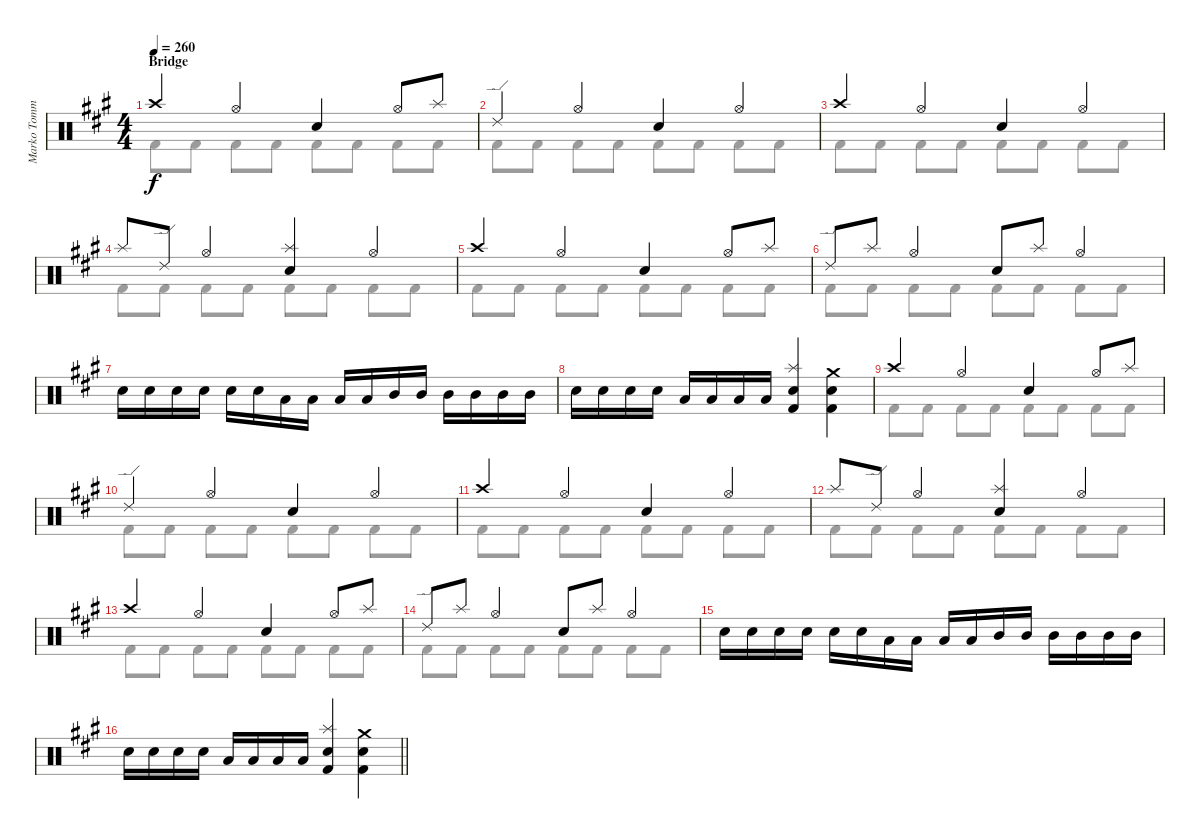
\track ("Marko Tommila (drums)" "Marko Tomm") {instrument percussion}
\staff {score}
\articulation defaults
\voice
\ts (4 4)
\section ("" "Bridge")
\tempo 260
\clef neutral
\ks f#minor "Crash high (hit)".4{dy f} "Hi-Hat (open)".4 "Electric Snare (hit)".4 "Hi-Hat (open)".8 "Splash (hit)".8
|
"Ride (edge) 2".4 "Hi-Hat (open)".4 "Electric Snare (hit)".4 "Hi-Hat (open)".4 |
"Crash high (hit)".4 "Hi-Hat (open)".4 "Electric Snare (hit)".4 "Hi-Hat (open)".4 |
"Splash (hit)".8 "Ride (edge) 2".8 "Hi-Hat (open)".4 ("Splash (hit)" "Electric Snare (hit)").4 "Hi-Hat (open)".4 |
"Crash high (hit)".4 "Hi-Hat (open)".4 "Electric Snare (hit)".4 "Hi-Hat (open)".8 "Splash (hit)".8 |
"Ride (edge) 2".8 "Splash (hit)".8 "Hi-Hat (open)".4 "Electric Snare (hit)".8 "Splash (hit)".8 "Hi-Hat (open)".4 |
"Electric Snare (hit)".16 "Electric Snare (hit)".16 "Electric Snare (hit)".16 "Electric Snare (hit)".16 "Electric Snare (hit)".16 "Electric Snare (hit)".16 "Low Tom (hit)".16 "Low Tom (hit)".16 "Low Tom (hit)".16 "Low Tom (hit)".16 "Mid Tom (hit)".16 "Mid Tom (hit)".16 "Mid Tom (hit)".16 "Mid Tom (hit)".16 "Mid Tom (hit)".16 "Mid Tom (hit)".16 |
"Electric Snare (hit)".16 "Electric Snare (hit)".16 "Electric Snare (hit)".16 "Electric Snare (hit)".16 "Low Tom (hit)".16 "Low Tom (hit)".16 "Low Tom (hit)".16 "Low Tom (hit)".16 ("Splash (hit)" "Electric Snare (hit)" "Kick (hit) 2").4 ("Crash medium (hit)" "Electric Snare (hit)" "Kick (hit) 2").4 |
"Crash high (hit)".4 "Hi-Hat (open)".4 "Electric Snare (hit)".4 "Hi-Hat (open)".8 "Splash (hit)".8 |
"Ride (edge) 2".4 "Hi-Hat (open)".4 "Electric Snare (hit)".4 "Hi-Hat (open)".4 |
"Crash high (hit)".4 "Hi-Hat (open)".4 "Electric Snare (hit)".4 "Hi-Hat (open)".4 |
"Splash (hit)".8 "Ride (edge) 2".8 "Hi-Hat (open)".4 ("Splash (hit)" "Electric Snare (hit)").4 "Hi-Hat (open)".4 |
"Crash high (hit)".4 "Hi-Hat (open)".4 "Electric Snare (hit)".4 "Hi-Hat (open)".8 "Splash (hit)".8 |
"Ride (edge) 2".8 "Splash (hit)".8 "Hi-Hat (open)".4 "Electric Snare (hit)".8 "Splash (hit)".8 "Hi-Hat (open)".4 |
"Electric Snare (hit)".16 "Electric Snare (hit)".16 "Electric Snare (hit)".16 "Electric Snare (hit)".16 "Electric Snare (hit)".16 "Electric Snare (hit)".16 "Low Tom (hit)".16 "Low Tom (hit)".16 "Low Tom (hit)".16 "Low Tom (hit)".16 "Mid Tom (hit)".16 "Mid Tom (hit)".16 "Mid Tom (hit)".16 "Mid Tom (hit)".16 "Mid Tom (hit)".16 "Mid Tom (hit)".16 |
\barLineRight lightlight "Electric Snare (hit)".16 "Electric Snare (hit)".16 "Electric Snare (hit)".16 "Electric Snare (hit)".16 "Low Tom (hit)".16 "Low Tom (hit)".16 "Low Tom (hit)".16 "Low Tom (hit)".16
("Splash (hit)" "Electric Snare (hit)" "Kick (hit) 2").4 ("Crash medium (hit)" "Electric Snare (hit)" "Kick (hit) 2").4
\voice
\clef neutral
\ottava regular
\simile none
\ks f#minor "Kick (hit) 2".8{dy f} "Kick (hit) 2".8 "Kick (hit) 2".8 "Kick (hit) 2".8 "Kick (hit) 2".8 "Kick (hit) 2".8 "Kick (hit) 2".8 "Kick (hit) 2".8
|
"Kick (hit) 2".8 "Kick (hit) 2".8 "Kick (hit) 2".8 "Kick (hit) 2".8 "Kick (hit) 2".8 "Kick (hit) 2".8 "Kick (hit) 2".8 "Kick (hit) 2".8 |
"Kick (hit) 2".8 "Kick (hit) 2".8 "Kick (hit) 2".8 "Kick (hit) 2".8 "Kick (hit) 2".8 "Kick (hit) 2".8 "Kick (hit) 2".8 "Kick (hit) 2".8 |
"Kick (hit) 2".8 "Kick (hit) 2".8 "Kick (hit) 2".8 "Kick (hit) 2".8 "Kick (hit) 2".8 "Kick (hit) 2".8 "Kick (hit) 2".8 "Kick (hit) 2".8 |
"Kick (hit) 2".8 "Kick (hit) 2".8 "Kick (hit) 2".8 "Kick (hit) 2".8 "Kick (hit) 2".8 "Kick (hit) 2".8 "Kick (hit) 2".8 "Kick (hit) 2".8 |
"Kick (hit) 2".8 "Kick (hit) 2".8 "Kick (hit) 2".8 "Kick (hit) 2".8 "Kick (hit) 2".8 "Kick (hit) 2".8 "Kick (hit) 2".8 "Kick (hit) 2".8 |
|
|
"Kick (hit) 2".8 "Kick (hit) 2".8 "Kick (hit) 2".8 "Kick (hit) 2".8 "Kick (hit) 2".8 "Kick (hit) 2".8 "Kick (hit) 2".8 "Kick (hit) 2".8 |
"Kick (hit) 2".8 "Kick (hit) 2".8 "Kick (hit) 2".8 "Kick (hit) 2".8 "Kick (hit) 2".8 "Kick (hit) 2".8 "Kick (hit) 2".8 "Kick (hit) 2".8 |
"Kick (hit) 2".8 "Kick (hit) 2".8 "Kick (hit) 2".8 "Kick (hit) 2".8 "Kick (hit) 2".8 "Kick (hit) 2".8 "Kick (hit) 2".8 "Kick (hit) 2".8 |
"Kick (hit) 2".8 "Kick (hit) 2".8 "Kick (hit) 2".8 "Kick (hit) 2".8 "Kick (hit) 2".8 "Kick (hit) 2".8 "Kick (hit) 2".8 "Kick (hit) 2".8 |
"Kick (hit) 2".8 "Kick (hit) 2".8 "Kick (hit) 2".8 "Kick (hit) 2".8 "Kick (hit) 2".8 "Kick (hit) 2".8 "Kick (hit) 2".8 "Kick (hit) 2".8 |
"Kick (hit) 2".8 "Kick (hit) 2".8 "Kick (hit) 2".8 "Kick (hit) 2".8 "Kick (hit) 2".8 "Kick (hit) 2".8 "Kick (hit) 2".8 "Kick (hit) 2".8 |
|
\barLineRight lightlight
